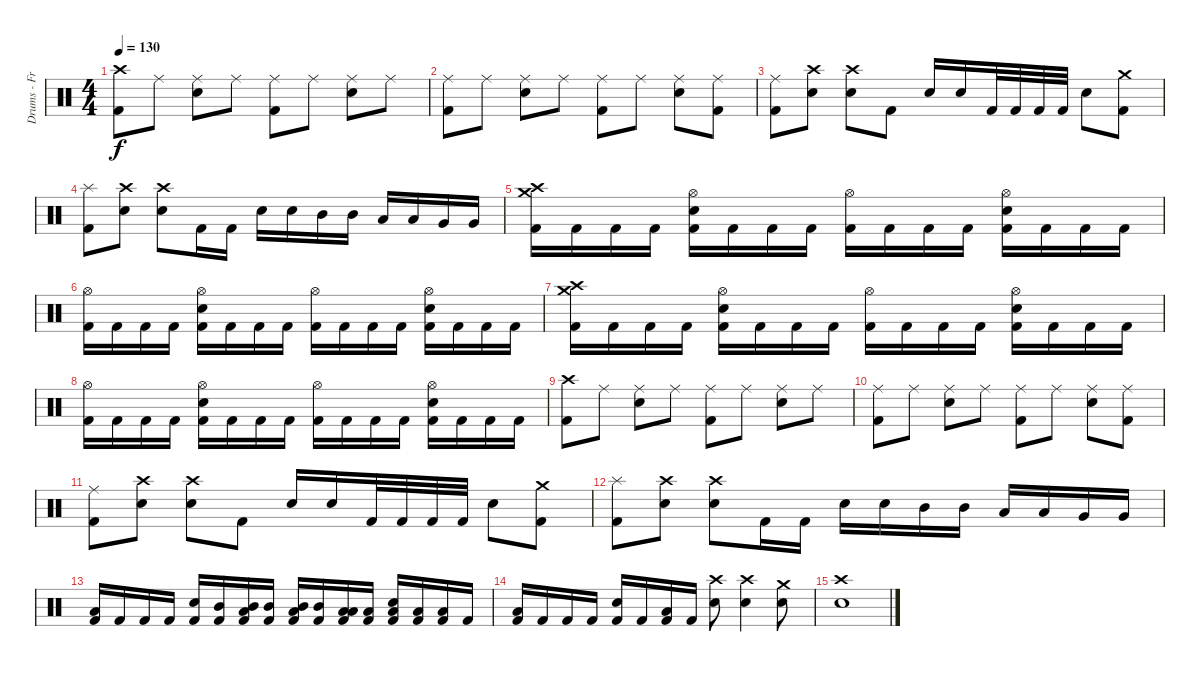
\track ("Drums - Fredrik Andersson" "Drums - Fr") {instrument percussion}
\staff {score}
\articulation defaults
\ts (4 4)
\tempo 130
\clef neutral
\ks c
("Kick (hit) 2" "Crash high (hit)").8{dy f} "Ride (middle)".8 ("Snare (hit) 2" "Ride (middle)").8 "Ride (middle)".8 ("Kick (hit) 2" "Ride (middle)").8 "Ride (middle)".8 ("Snare (hit) 2" "Ride (middle)").8 "Ride (middle)".8 |
("Kick (hit) 2" "Ride (middle)").8 "Ride (middle)".8 ("Snare (hit) 2" "Ride (middle)").8 "Ride (middle)".8 ("Kick (hit) 2" "Ride (middle)").8 "Ride (middle)".8 ("Snare (hit) 2" "Ride (middle)").8 ("Kick (hit) 2" "Ride (middle)").8 |
("Ride (middle)" "Kick (hit) 2").8 ("Snare (hit) 2" "Crash high (hit)").8 ("Snare (hit) 2" "Crash high (hit)").8 "Kick (hit) 2".8 "Snare (hit) 2".16 "Snare (hit) 2".16 "Kick (hit) 2".32 "Kick (hit) 2".32 "Kick (hit) 2".32 "Kick (hit) 2".32 "Snare (hit) 2".8 ("Crash medium (hit)" "Kick (hit) 2").8 |
("Kick (hit) 2" "Splash (hit)").8 ("Snare (hit) 2" "Crash high (hit)").8 ("Snare (hit) 2" "Crash high (hit)").8 "Kick (hit) 2".16 "Kick (hit) 2".16 "Snare (hit) 2".16 "Snare (hit) 2".16 "Mid Tom (hit)".16 "Mid Tom (hit)".16 "Low Tom (hit)".16 "Low Tom (hit)".16 "Very Low Tom (hit)".16 "Very Low Tom (hit)".16 |
("Kick (hit) 2" "Crash high (hit)" "Crash medium (hit)").16 "Kick (hit) 2".16 "Kick (hit) 2".16 "Kick (hit) 2".16 ("Kick (hit) 2" "Snare (hit) 2" "Hi-Hat (open)").16 "Kick (hit) 2".16 "Kick (hit) 2".16 "Kick (hit) 2".16 ("Kick (hit) 2" "Hi-Hat (open)").16 "Kick (hit) 2".16 "Kick (hit) 2".16 "Kick (hit) 2".16 ("Kick (hit) 2" "Snare (hit) 2" "Hi-Hat (open)").16 "Kick (hit) 2".16 "Kick (hit) 2".16 "Kick (hit) 2".16 |
("Kick (hit) 2" "Hi-Hat (open)").16 "Kick (hit) 2".16 "Kick (hit) 2".16 "Kick (hit) 2".16 ("Kick (hit) 2" "Snare (hit) 2" "Hi-Hat (open)").16 "Kick (hit) 2".16 "Kick (hit) 2".16 "Kick (hit) 2".16 ("Kick (hit) 2" "Hi-Hat (open)").16 "Kick (hit) 2".16 "Kick (hit) 2".16 "Kick (hit) 2".16 ("Kick (hit) 2" "Snare (hit) 2" "Hi-Hat (open)").16 "Kick (hit) 2".16 "Kick (hit) 2".16 "Kick (hit) 2".16 |
("Kick (hit) 2" "Crash high (hit)" "Crash medium (hit)").16 "Kick (hit) 2".16 "Kick (hit) 2".16 "Kick (hit) 2".16 ("Kick (hit) 2" "Snare (hit) 2" "Hi-Hat (open)").16 "Kick (hit) 2".16 "Kick (hit) 2".16 "Kick (hit) 2".16 ("Kick (hit) 2" "Hi-Hat (open)").16 "Kick (hit) 2".16 "Kick (hit) 2".16 "Kick (hit) 2".16 ("Kick (hit) 2" "Snare (hit) 2" "Hi-Hat (open)").16 "Kick (hit) 2".16 "Kick (hit) 2".16 "Kick (hit) 2".16 |
("Kick (hit) 2" "Hi-Hat (open)").16 "Kick (hit) 2".16 "Kick (hit) 2".16 "Kick (hit) 2".16 ("Kick (hit) 2" "Snare (hit) 2" "Hi-Hat (open)").16 "Kick (hit) 2".16 "Kick (hit) 2".16 "Kick (hit) 2".16 ("Kick (hit) 2" "Hi-Hat (open)").16 "Kick (hit) 2".16 "Kick (hit) 2".16 "Kick (hit) 2".16 ("Kick (hit) 2" "Snare (hit) 2" "Hi-Hat (open)").16 "Kick (hit) 2".16 "Kick (hit) 2".16 "Kick (hit) 2".16 |
("Kick (hit) 2" "Crash high (hit)").8 "Ride (middle)".8 ("Snare (hit) 2" "Ride (middle)").8 "Ride (middle)".8 ("Kick (hit) 2" "Ride (middle)").8 "Ride (middle)".8 ("Snare (hit) 2" "Ride (middle)").8 "Ride (middle)".8 |
("Kick (hit) 2" "Ride (middle)").8 "Ride (middle)".8 ("Snare (hit) 2" "Ride (middle)").8 "Ride (middle)".8 ("Kick (hit) 2" "Ride (middle)").8 "Ride (middle)".8 ("Snare (hit) 2" "Ride (middle)").8 ("Kick (hit) 2" "Ride (middle)").8 |
("Ride (middle)" "Kick (hit) 2").8 ("Snare (hit) 2" "Crash high (hit)").8 ("Snare (hit) 2" "Crash high (hit)").8 "Kick (hit) 2".8 "Snare (hit) 2".16 "Snare (hit) 2".16 "Kick (hit) 2".32 "Kick (hit) 2".32 "Kick (hit) 2".32 "Kick (hit) 2".32 "Snare (hit) 2".8 ("Crash medium (hit)" "Kick (hit) 2").8 |
("Kick (hit) 2" "Splash (hit)").8 ("Snare (hit) 2" "Crash high (hit)").8 ("Snare (hit) 2" "Crash high (hit)").8 "Kick (hit) 2".16 "Kick (hit) 2".16 "Snare (hit) 2".16 "Snare (hit) 2".16 "Mid Tom (hit)".16 "Mid Tom (hit)".16 "Low Tom (hit)".16 "Low Tom (hit)".16 "Very Low Tom (hit)".16 "Very Low Tom (hit)".16 |
("Kick (hit) 2" "Low Floor Tom (hit)").16 "Kick (hit) 2".16 "Kick (hit) 2".16 "Kick (hit) 2".16 ("Kick (hit) 2" "Snare (hit) 2").16 ("Kick (hit) 2" "Mid Tom (hit)").16 ("Kick (hit) 2" "Low Floor Tom (hit)" "Mid Tom (hit)").16 ("Kick (hit) 2" "Mid Tom (hit)").16 ("Kick (hit) 2" "Low Floor Tom (hit)" "Mid Tom (hit)").16 ("Kick (hit) 2" "Mid Tom (hit)").16 ("Kick (hit) 2" "Low Floor Tom (hit)" "Low Tom (hit)").16 ("Kick (hit) 2" "Low Tom (hit)").16 ("Kick (hit) 2" "Snare (hit) 2" "Low Tom (hit)").16 ("Kick (hit) 2" "Low Tom (hit)").16 ("Kick (hit) 2" "Low Floor Tom (hit)").16 "Kick (hit) 2".16 |
("Kick (hit) 2" "Low Floor Tom (hit)").16 "Kick (hit) 2".16 "Kick (hit) 2".16 "Kick (hit) 2".16 ("Kick (hit) 2" "Snare (hit) 2").16 "Kick (hit) 2".16 ("Kick (hit) 2" "Low Floor Tom (hit)").16 "Kick (hit) 2".16 ("Crash high (hit)" "Snare (hit) 2").8 ("Crash high (hit)" "Snare (hit) 2").4 ("Crash medium (hit)" "Snare (hit) 2").8 |
("Crash high (hit)" "Snare (hit) 2").1
